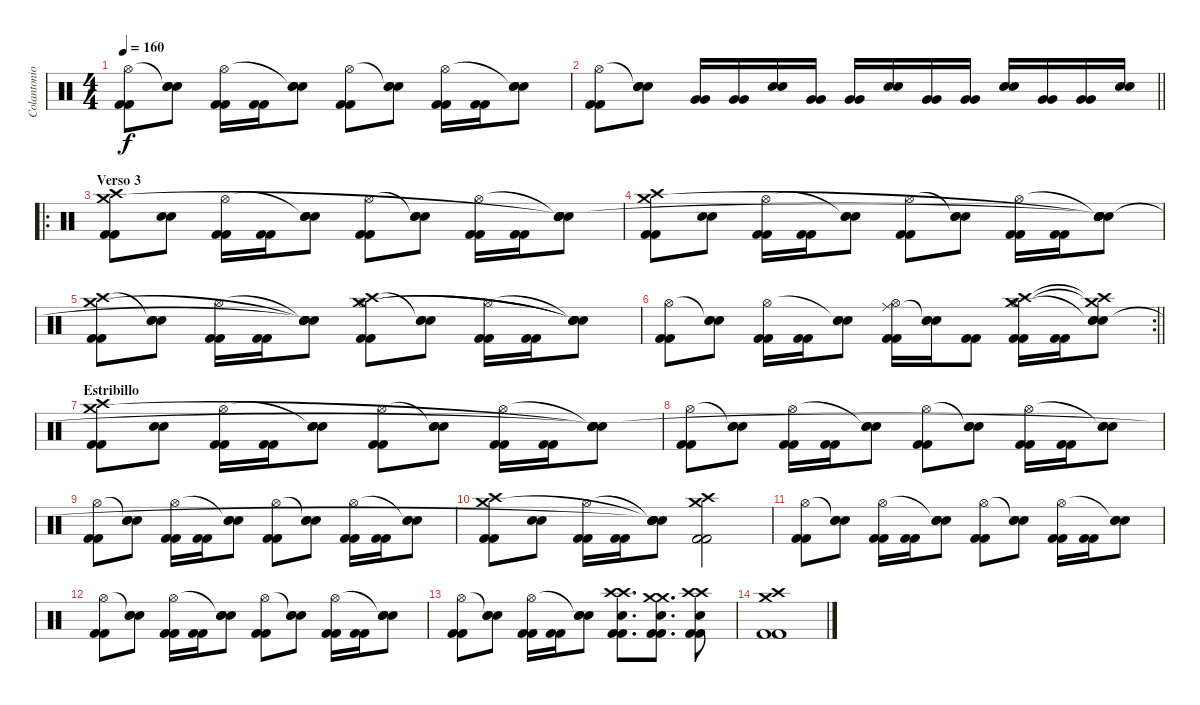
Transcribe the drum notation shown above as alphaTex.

\track ("Colantonio (Bateria)" "Colantonio") {instrument percussion}
\staff {score}
\articulation defaults
\ts (4 4)
\tempo 160
\clef neutral
\ks c
("Kick (hit) 2" "Kick (hit) 2" "Hi-Hat (open)").8{dy f} ("Snare (hit) 2" "Snare (hit) 2" "Snare (hit)"{t}).8 ("Kick (hit) 2" "Kick (hit) 2" "Hi-Hat (open)").16 ("Kick (hit) 2" "Kick (hit) 2").16 ("Snare (hit) 2" "Snare (hit) 2" "Snare (hit)"{t}).8 ("Kick (hit) 2" "Kick (hit) 2" "Hi-Hat (open)").8 ("Snare (hit) 2" "Snare (hit) 2" "Snare (hit)"{t}).8 ("Kick (hit) 2" "Kick (hit) 2" "Hi-Hat (open)").16 ("Kick (hit) 2" "Kick (hit) 2").16 ("Snare (hit) 2" "Snare (hit) 2" "Snare (hit)"{t}).8 |
\barLineRight lightlight
("Kick (hit) 2" "Kick (hit) 2" "Hi-Hat (open)").8 ("Snare (hit) 2" "Snare (hit) 2" "Snare (hit)"{t}).8 ("Very Low Tom (hit)" "Very Low Tom (hit)").16 ("Very Low Tom (hit)" "Very Low Tom (hit)").16 ("Snare (hit) 2" "Snare (hit) 2").16 ("Very Low Tom (hit)" "Very Low Tom (hit)").16 ("Very Low Tom (hit)" "Very Low Tom (hit)").16 ("Snare (hit) 2" "Snare (hit) 2").16 ("Very Low Tom (hit)" "Very Low Tom (hit)").16 ("Very Low Tom (hit)" "Very Low Tom (hit)").16 ("Snare (hit) 2" "Snare (hit) 2").16 ("Very Low Tom (hit)" "Very Low Tom (hit)").16 ("Very Low Tom (hit)" "Very Low Tom (hit)").16 ("Snare (hit) 2" "Snare (hit) 2").16 |
\ro
\section ("" "Verso 3")
("Kick (hit) 2" "Kick (hit) 2" "Crash high (hit)" "Crash medium (hit)").8 ("Snare (hit) 2" "Snare (hit) 2").8 ("Kick (hit) 2" "Kick (hit) 2" "Hi-Hat (open)").16 ("Kick (hit) 2" "Kick (hit) 2").16 ("Snare (hit) 2" "Snare (hit) 2" "Snare (hit)"{t}).8 ("Kick (hit) 2" "Kick (hit) 2" "Hi-Hat (open)").8 ("Snare (hit) 2" "Snare (hit) 2" "Snare (hit)"{t}).8 ("Kick (hit) 2" "Kick (hit) 2" "Hi-Hat (open)").16 ("Kick (hit) 2" "Kick (hit) 2").16 ("Snare (hit) 2" "Snare (hit) 2" "Snare (hit)"{t} "Snare (hit)"{t} "Snare (hit)").8 |
("Kick (hit) 2" "Kick (hit) 2" "Crash high (hit)" "Crash medium (hit)").8 ("Snare (hit) 2" "Snare (hit) 2").8 ("Kick (hit) 2" "Kick (hit) 2" "Hi-Hat (open)").16 ("Kick (hit) 2" "Kick (hit) 2").16 ("Snare (hit) 2" "Snare (hit) 2" "Snare (hit)"{t}).8 ("Kick (hit) 2" "Kick (hit) 2" "Hi-Hat (open)").8 ("Snare (hit) 2" "Snare (hit) 2" "Snare (hit)"{t}).8 ("Kick (hit) 2" "Kick (hit) 2" "Hi-Hat (open)").16 ("Kick (hit) 2" "Kick (hit) 2").16 ("Snare (hit) 2" "Snare (hit) 2" "Snare (hit)"{t} "Snare (hit)"{t} "Snare (hit)"{t}).8 |
("Kick (hit) 2" "Kick (hit) 2" "Crash high (hit)" "Crash medium (hit)").8 ("Snare (hit) 2" "Snare (hit) 2" "Snare (hit)"{t}).8 ("Kick (hit) 2" "Kick (hit) 2" "Hi-Hat (open)").16 ("Kick (hit) 2" "Kick (hit) 2").16 ("Snare (hit) 2" "Snare (hit) 2" "Snare (hit)"{t} "Snare (hit)"{t} "Snare (hit)"{t}).8 ("Kick (hit) 2" "Kick (hit) 2" "Crash high (hit)" "Hi-Hat (open)" "Crash medium (hit)").8 ("Snare (hit) 2" "Snare (hit) 2" "Snare (hit)"{t}).8 ("Kick (hit) 2" "Kick (hit) 2" "Hi-Hat (open)").16 ("Kick (hit) 2" "Kick (hit) 2").16 ("Snare (hit) 2" "Snare (hit) 2" "Snare (hit)"{t} "Snare (hit)"{t} "Snare (hit)"{t}).8 |
\rc 2
\barLineRight lightlight
("Kick (hit) 2" "Kick (hit) 2" "Hi-Hat (open)").8 ("Snare (hit) 2" "Snare (hit) 2" "Snare (hit)"{t}).8 ("Kick (hit) 2" "Kick (hit) 2" "Hi-Hat (open)").16 ("Kick (hit) 2" "Kick (hit) 2").16 ("Snare (hit) 2" "Snare (hit) 2" "Snare (hit)"{t}).8 ("Kick (hit) 2" "Kick (hit) 2" "Ride (middle)" "Hi-Hat (open)").16 ("Snare (hit) 2" "Snare (hit) 2" "Snare (hit)"{t}).16 ("Kick (hit) 2" "Kick (hit) 2").8 ("Kick (hit) 2" "Kick (hit) 2" "Crash medium (hit)" "Crash high (hit)" "Hi-Hat (open)").16 ("Kick (hit) 2" "Kick (hit) 2").16 ("Snare (hit) 2" "Snare (hit) 2" "Crash medium (hit)"{t} "Crash high (hit)"{t} "Snare (hit)"{t}).8 |
\section ("" "Estribillo")
("Kick (hit) 2" "Kick (hit) 2" "Crash high (hit)" "Crash medium (hit)").8 ("Snare (hit) 2" "Snare (hit) 2").8 ("Kick (hit) 2" "Kick (hit) 2" "Hi-Hat (open)").16 ("Kick (hit) 2" "Kick (hit) 2").16 ("Snare (hit) 2" "Snare (hit) 2" "Snare (hit)"{t}).8 ("Kick (hit) 2" "Kick (hit) 2" "Hi-Hat (open)").8 ("Snare (hit) 2" "Snare (hit) 2" "Snare (hit)"{t}).8 ("Kick (hit) 2" "Kick (hit) 2" "Hi-Hat (open)").16 ("Kick (hit) 2" "Kick (hit) 2").16 ("Snare (hit) 2" "Snare (hit) 2" "Snare (hit)"{t} "Snare (hit)"{t} "Snare (hit)"{t}).8 |
("Kick (hit) 2" "Kick (hit) 2" "Hi-Hat (open)").8 ("Snare (hit) 2" "Snare (hit) 2" "Snare (hit)"{t}).8 ("Kick (hit) 2" "Kick (hit) 2" "Hi-Hat (open)").16 ("Kick (hit) 2" "Kick (hit) 2").16 ("Snare (hit) 2" "Snare (hit) 2" "Snare (hit)"{t}).8 ("Kick (hit) 2" "Kick (hit) 2" "Hi-Hat (open)").8 ("Snare (hit) 2" "Snare (hit) 2" "Snare (hit)"{t}).8 ("Kick (hit) 2" "Kick (hit) 2" "Hi-Hat (open)").16 ("Kick (hit) 2" "Kick (hit) 2").16 ("Snare (hit) 2" "Snare (hit) 2" "Snare (hit)"{t}).8 |
("Kick (hit) 2" "Kick (hit) 2" "Hi-Hat (open)").8 ("Snare (hit) 2" "Snare (hit) 2" "Snare (hit)"{t}).8 ("Kick (hit) 2" "Kick (hit) 2" "Hi-Hat (open)").16 ("Kick (hit) 2" "Kick (hit) 2").16 ("Snare (hit) 2" "Snare (hit) 2" "Snare (hit)"{t}).8 ("Kick (hit) 2" "Kick (hit) 2" "Hi-Hat (open)").8 ("Snare (hit) 2" "Snare (hit) 2" "Snare (hit)"{t}).8 ("Kick (hit) 2" "Kick (hit) 2" "Hi-Hat (open)").16 ("Kick (hit) 2" "Kick (hit) 2").16 ("Snare (hit) 2" "Snare (hit) 2" "Snare (hit)"{t}).8 |
("Kick (hit) 2" "Kick (hit) 2" "Crash high (hit)" "Crash medium (hit)").8 ("Snare (hit) 2" "Snare (hit) 2").8 ("Kick (hit) 2" "Kick (hit) 2" "Hi-Hat (open)").16 ("Kick (hit) 2" "Kick (hit) 2").16 ("Snare (hit) 2" "Snare (hit) 2" "Snare (hit)"{t} "Snare (hit)"{t} "Snare (hit)"{t}).8 ("Kick (hit) 2" "Kick (hit) 2" "Crash high (hit)" "Crash medium (hit)").2 |
("Kick (hit) 2" "Kick (hit) 2" "Hi-Hat (open)").8 ("Snare (hit) 2" "Snare (hit) 2" "Snare (hit)"{t}).8 ("Kick (hit) 2" "Kick (hit) 2" "Hi-Hat (open)").16 ("Kick (hit) 2" "Kick (hit) 2").16 ("Snare (hit) 2" "Snare (hit) 2" "Snare (hit)"{t}).8 ("Kick (hit) 2" "Kick (hit) 2" "Hi-Hat (open)").8 ("Snare (hit) 2" "Snare (hit) 2" "Snare (hit)"{t}).8 ("Kick (hit) 2" "Kick (hit) 2" "Hi-Hat (open)").16 ("Kick (hit) 2" "Kick (hit) 2").16 ("Snare (hit) 2" "Snare (hit) 2" "Snare (hit)"{t}).8 |
("Kick (hit) 2" "Kick (hit) 2" "Hi-Hat (open)").8 ("Snare (hit) 2" "Snare (hit) 2" "Snare (hit)"{t}).8 ("Kick (hit) 2" "Kick (hit) 2" "Hi-Hat (open)").16 ("Kick (hit) 2" "Kick (hit) 2").16 ("Snare (hit) 2" "Snare (hit) 2" "Snare (hit)"{t}).8 ("Kick (hit) 2" "Kick (hit) 2" "Hi-Hat (open)").8 ("Snare (hit) 2" "Snare (hit) 2" "Snare (hit)"{t}).8 ("Kick (hit) 2" "Kick (hit) 2" "Hi-Hat (open)").16 ("Kick (hit) 2" "Kick (hit) 2").16 ("Snare (hit) 2" "Snare (hit) 2" "Snare (hit)"{t}).8 |
("Kick (hit) 2" "Kick (hit) 2" "Hi-Hat (open)").8 ("Snare (hit) 2" "Snare (hit) 2" "Snare (hit)"{t}).8 ("Kick (hit) 2" "Kick (hit) 2" "Hi-Hat (open)").16 ("Kick (hit) 2" "Kick (hit) 2").16 ("Snare (hit) 2" "Snare (hit) 2" "Snare (hit)"{t}).8 ("Crash high (hit)" "Crash high (hit)" "Snare (hit) 2" "Kick (hit) 2" "Kick (hit) 2").8{d} ("Crash medium (hit)" "Crash medium (hit)" "Snare (hit) 2" "Kick (hit) 2" "Kick (hit) 2").8{d} ("Crash high (hit)" "Crash high (hit)" "Snare (hit) 2" "Kick (hit) 2" "Kick (hit) 2").8 |
("Kick (hit) 2" "Kick (hit) 2" "Crash medium (hit)" "Crash high (hit)").1
